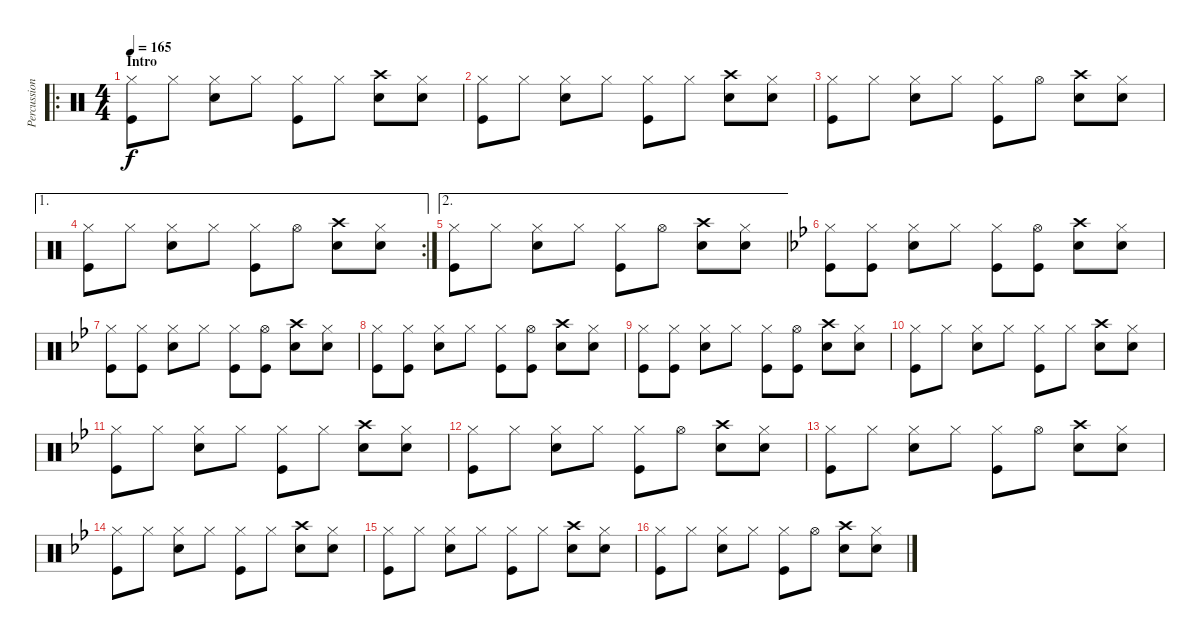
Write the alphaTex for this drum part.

\track ("Percussions" "Percussion") {instrument percussion}
\staff {score}
\articulation defaults
\ro
\ts (4 4)
\section ("" "Intro")
\tempo 165
\clef neutral
\ks c
("Hi-Hat (closed)" "Kick (hit)").8{dy f} "Hi-Hat (closed)".8 ("Hi-Hat (closed)" "Snare (hit) 2").8 "Hi-Hat (closed)".8 ("Hi-Hat (closed)" "Kick (hit)").8 "Hi-Hat (closed)".8 ("Crash high (hit)" "Snare (hit) 2").8 ("Hi-Hat (closed)" "Snare (hit) 2").8 |
("Hi-Hat (closed)" "Kick (hit)").8 "Hi-Hat (closed)".8 ("Hi-Hat (closed)" "Snare (hit) 2").8 "Hi-Hat (closed)".8 ("Hi-Hat (closed)" "Kick (hit)").8 "Hi-Hat (closed)".8 ("Crash high (hit)" "Snare (hit) 2").8 ("Hi-Hat (closed)" "Snare (hit) 2").8 |
("Hi-Hat (closed)" "Kick (hit)").8 "Hi-Hat (closed)".8 ("Hi-Hat (closed)" "Snare (hit) 2").8 "Hi-Hat (closed)".8 ("Hi-Hat (closed)" "Kick (hit)").8 "Hi-Hat (open)".8 ("Crash high (hit)" "Snare (hit) 2").8 ("Hi-Hat (closed)" "Snare (hit) 2").8 |
\ae 1
\rc 2
("Hi-Hat (closed)" "Kick (hit)").8 "Hi-Hat (closed)".8 ("Hi-Hat (closed)" "Snare (hit) 2").8 "Hi-Hat (closed)".8 ("Hi-Hat (closed)" "Kick (hit)").8 "Hi-Hat (open)".8 ("Crash high (hit)" "Snare (hit) 2").8 ("Hi-Hat (closed)" "Snare (hit) 2").8 |
\ae 2
("Hi-Hat (closed)" "Kick (hit)").8 "Hi-Hat (closed)".8 ("Hi-Hat (closed)" "Snare (hit) 2").8 "Hi-Hat (closed)".8 ("Hi-Hat (closed)" "Kick (hit)").8 "Hi-Hat (open)".8 ("Crash high (hit)" "Snare (hit) 2").8 ("Hi-Hat (closed)" "Snare (hit) 2").8 |
\ks bb
("Hi-Hat (closed)" "Kick (hit)").8 ("Hi-Hat (closed)" "Kick (hit)").8 ("Hi-Hat (closed)" "Snare (hit) 2").8 "Hi-Hat (closed)".8 ("Hi-Hat (closed)" "Kick (hit)").8 ("Hi-Hat (open)" "Kick (hit)").8 ("Crash high (hit)" "Snare (hit) 2").8 ("Hi-Hat (closed)" "Snare (hit) 2").8 |
("Hi-Hat (closed)" "Kick (hit)").8 ("Hi-Hat (closed)" "Kick (hit)").8 ("Hi-Hat (closed)" "Snare (hit) 2").8 "Hi-Hat (closed)".8 ("Hi-Hat (closed)" "Kick (hit)").8 ("Hi-Hat (open)" "Kick (hit)").8 ("Crash high (hit)" "Snare (hit) 2").8 ("Hi-Hat (closed)" "Snare (hit) 2").8 |
("Hi-Hat (closed)" "Kick (hit)").8 ("Hi-Hat (closed)" "Kick (hit)").8 ("Hi-Hat (closed)" "Snare (hit) 2").8 "Hi-Hat (closed)".8 ("Hi-Hat (closed)" "Kick (hit)").8 ("Hi-Hat (open)" "Kick (hit)").8 ("Crash high (hit)" "Snare (hit) 2").8 ("Hi-Hat (closed)" "Snare (hit) 2").8 |
("Hi-Hat (closed)" "Kick (hit)").8 ("Hi-Hat (closed)" "Kick (hit)").8 ("Hi-Hat (closed)" "Snare (hit) 2").8 "Hi-Hat (closed)".8 ("Hi-Hat (closed)" "Kick (hit)").8 ("Hi-Hat (open)" "Kick (hit)").8 ("Crash high (hit)" "Snare (hit) 2").8 ("Hi-Hat (closed)" "Snare (hit) 2").8 |
("Hi-Hat (closed)" "Kick (hit)").8 "Hi-Hat (closed)".8 ("Hi-Hat (closed)" "Snare (hit) 2").8 "Hi-Hat (closed)".8 ("Hi-Hat (closed)" "Kick (hit)").8 "Hi-Hat (closed)".8 ("Crash high (hit)" "Snare (hit) 2").8 ("Hi-Hat (closed)" "Snare (hit) 2").8 |
("Hi-Hat (closed)" "Kick (hit)").8 "Hi-Hat (closed)".8 ("Hi-Hat (closed)" "Snare (hit) 2").8 "Hi-Hat (closed)".8 ("Hi-Hat (closed)" "Kick (hit)").8 "Hi-Hat (closed)".8 ("Crash high (hit)" "Snare (hit) 2").8 ("Hi-Hat (closed)" "Snare (hit) 2").8 |
("Hi-Hat (closed)" "Kick (hit)").8 "Hi-Hat (closed)".8 ("Hi-Hat (closed)" "Snare (hit) 2").8 "Hi-Hat (closed)".8 ("Hi-Hat (closed)" "Kick (hit)").8 "Hi-Hat (open)".8 ("Crash high (hit)" "Snare (hit) 2").8 ("Hi-Hat (closed)" "Snare (hit) 2").8 |
("Hi-Hat (closed)" "Kick (hit)").8 "Hi-Hat (closed)".8 ("Hi-Hat (closed)" "Snare (hit) 2").8 "Hi-Hat (closed)".8 ("Hi-Hat (closed)" "Kick (hit)").8 "Hi-Hat (open)".8 ("Crash high (hit)" "Snare (hit) 2").8 ("Hi-Hat (closed)" "Snare (hit) 2").8 |
("Hi-Hat (closed)" "Kick (hit)").8 "Hi-Hat (closed)".8 ("Hi-Hat (closed)" "Snare (hit) 2").8 "Hi-Hat (closed)".8 ("Hi-Hat (closed)" "Kick (hit)").8 "Hi-Hat (closed)".8 ("Crash high (hit)" "Snare (hit) 2").8 ("Hi-Hat (closed)" "Snare (hit) 2").8 |
("Hi-Hat (closed)" "Kick (hit)").8 "Hi-Hat (closed)".8 ("Hi-Hat (closed)" "Snare (hit) 2").8 "Hi-Hat (closed)".8 ("Hi-Hat (closed)" "Kick (hit)").8 "Hi-Hat (closed)".8 ("Crash high (hit)" "Snare (hit) 2").8 ("Hi-Hat (closed)" "Snare (hit) 2").8 |
("Hi-Hat (closed)" "Kick (hit)").8 "Hi-Hat (closed)".8 ("Hi-Hat (closed)" "Snare (hit) 2").8 "Hi-Hat (closed)".8 ("Hi-Hat (closed)" "Kick (hit)").8 "Hi-Hat (open)".8 ("Crash high (hit)" "Snare (hit) 2").8 ("Hi-Hat (closed)" "Snare (hit) 2").8
